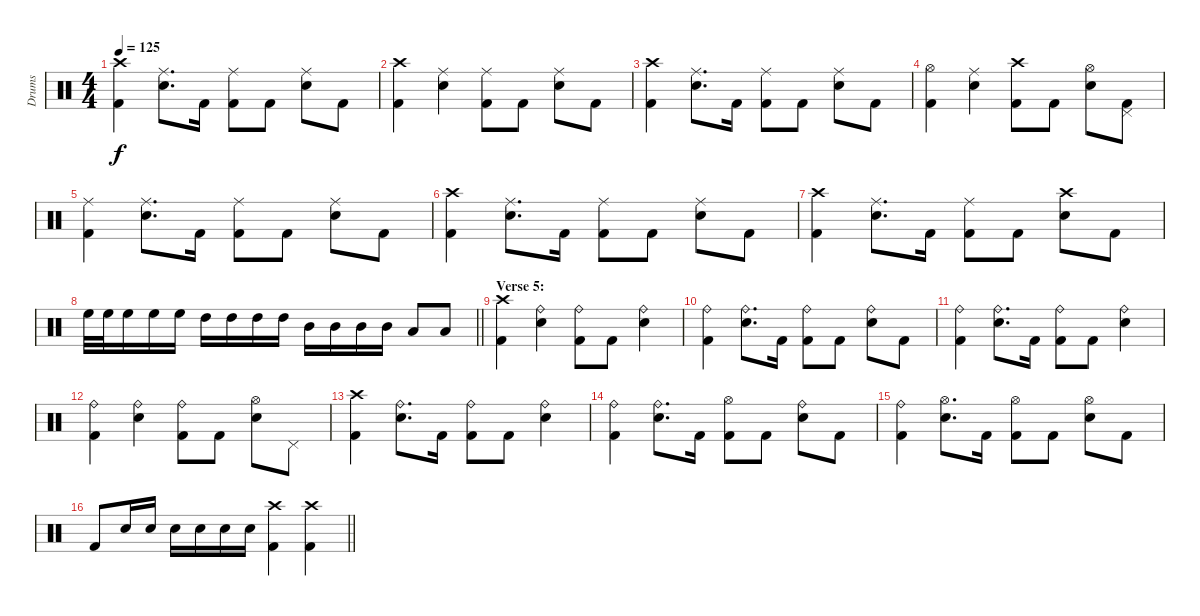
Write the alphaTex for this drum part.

\track ("Drums" "Drums") {instrument percussion}
\staff {score}
\articulation defaults
\ts (4 4)
\tempo 125
\clef neutral
\ks c
("Crash high (hit)" "Kick (hit) 2").4{dy f} ("Ride (middle)" "Electric Snare (hit)").8{d} "Kick (hit) 2".16 ("Ride (middle)" "Kick (hit) 2").8 "Kick (hit) 2".8 ("Ride (middle)" "Electric Snare (hit)").8 "Kick (hit) 2".8 |
("Crash high (hit)" "Kick (hit) 2").4 ("Ride (middle)" "Electric Snare (hit)").4 ("Ride (middle)" "Kick (hit) 2").8 "Kick (hit) 2".8 ("Ride (middle)" "Electric Snare (hit)").8 "Kick (hit) 2".8 |
("Crash high (hit)" "Kick (hit) 2").4 ("Ride (middle)" "Electric Snare (hit)").8{d} "Kick (hit) 2".16 ("Ride (middle)" "Kick (hit) 2").8 "Kick (hit) 2".8 ("Ride (middle)" "Electric Snare (hit)").8 "Kick (hit) 2".8 |
("Hi-Hat (open)" "Kick (hit) 2").4 ("Ride (middle)" "Electric Snare (hit)").4 ("Crash high (hit)" "Kick (hit) 2").8 "Kick (hit) 2".8 ("Hi-Hat (open)" "Electric Snare (hit)").8 ("Pedal Hi-Hat (hit)" "Kick (hit) 2").8 |
("Ride (middle)" "Kick (hit) 2").4 ("Ride (middle)" "Electric Snare (hit)").8{d} "Kick (hit) 2".16 ("Ride (middle)" "Kick (hit) 2").8 "Kick (hit) 2".8 ("Ride (middle)" "Electric Snare (hit)").8 "Kick (hit) 2".8 |
("Crash high (hit)" "Kick (hit) 2").4 ("Ride (middle)" "Electric Snare (hit)").8{d} "Kick (hit) 2".16 ("Ride (middle)" "Kick (hit) 2").8 "Kick (hit) 2".8 ("Ride (middle)" "Electric Snare (hit)").8 "Kick (hit) 2".8 |
("Crash high (hit)" "Kick (hit) 2").4 ("Ride (middle)" "Electric Snare (hit)").8{d} "Kick (hit) 2".16 ("Ride (middle)" "Kick (hit) 2").8 "Kick (hit) 2".8 ("Crash high (hit)" "Electric Snare (hit)").8 "Kick (hit) 2".8 |
\barLineRight lightlight "High Floor Tom (hit)".32 "High Floor Tom (hit)".32 "High Floor Tom (hit)".16 "High Floor Tom (hit)".16 "High Floor Tom (hit)".16 "High Tom (hit)".16 "High Tom (hit)".16 "High Tom (hit)".16 "High Tom (hit)".16 "Mid Tom (hit)".16 "Mid Tom (hit)".16 "Mid Tom (hit)".16 "Mid Tom (hit)".16 "Low Tom (hit)".8 "Low Tom (hit)".8
|
\section ("" "Verse 5:")
("Crash high (hit)" "Kick (hit) 2").4 ("Ride (bell)" "Electric Snare (hit)").4 ("Ride (bell)" "Kick (hit) 2").8 "Kick (hit) 2".8 ("Ride (bell)" "Electric Snare (hit)").4 |
("Ride (bell)" "Kick (hit) 2").4 ("Ride (bell)" "Electric Snare (hit)").8{d} "Kick (hit) 2".16 ("Ride (bell)" "Kick (hit) 2").8 "Kick (hit) 2".8 ("Ride (bell)" "Electric Snare (hit)").8 "Kick (hit) 2".8 |
("Ride (bell)" "Kick (hit) 2").4 ("Ride (bell)" "Electric Snare (hit)").8{d} "Kick (hit) 2".16 ("Ride (bell)" "Kick (hit) 2").8 "Kick (hit) 2".8 ("Ride (bell)" "Electric Snare (hit)").4 |
("Ride (bell)" "Kick (hit) 2").4 ("Ride (bell)" "Electric Snare (hit)").4 ("Ride (bell)" "Kick (hit) 2").8 "Kick (hit) 2".8 ("Hi-Hat (open)" "Electric Snare (hit)").8 "Pedal Hi-Hat (hit)".8 |
("Crash high (hit)" "Kick (hit) 2").4 ("Ride (bell)" "Electric Snare (hit)").8{d} "Kick (hit) 2".16 ("Ride (bell)" "Kick (hit) 2").8 "Kick (hit) 2".8 ("Ride (bell)" "Electric Snare (hit)").4 |
("Ride (bell)" "Kick (hit) 2").4 ("Ride (bell)" "Electric Snare (hit)").8{d} "Kick (hit) 2".16 ("Hi-Hat (open)" "Kick (hit) 2").8 "Kick (hit) 2".8 ("Ride (bell)" "Electric Snare (hit)").8 "Kick (hit) 2".8 |
("Ride (bell)" "Kick (hit) 2").4 ("Hi-Hat (open)" "Electric Snare (hit)").8{d} "Kick (hit) 2".16 ("Hi-Hat (open)" "Kick (hit) 2").8 "Kick (hit) 2".8 ("Hi-Hat (open)" "Electric Snare (hit)").8 "Kick (hit) 2".8 |
\barLineRight lightlight "Kick (hit) 2".8 "Electric Snare (hit)".16 "Electric Snare (hit)".16 "Electric Snare (hit)".16 "Electric Snare (hit)".16 "Electric Snare (hit)".16 "Electric Snare (hit)".16
("Crash high (hit)" "Kick (hit) 2").4 ("Crash high (hit)" "Kick (hit) 2").4
